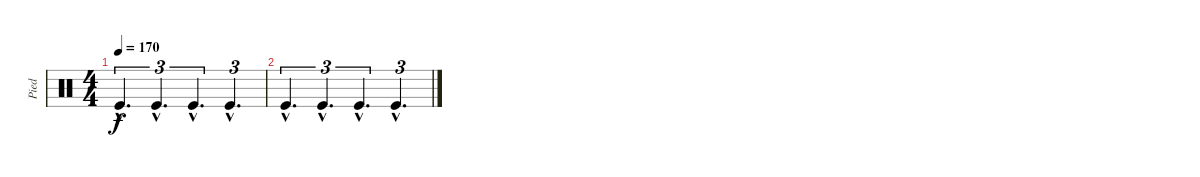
\track ("Pied" "Pied") {instrument percussion}
\staff {score}
\articulation defaults
\ts (4 4)
\tempo 170
\clef neutral
\ks c "Kick (hit)"{hac}.4{d tu (3 2) dy f} "Kick (hit)"{hac}.4{d tu (3 2)} "Kick (hit)"{hac}.4{d tu (3 2)} "Kick (hit)"{hac}.4{d tu (3 2)}
|
"Kick (hit)"{hac}.4{d tu (3 2)} "Kick (hit)"{hac}.4{d tu (3 2)} "Kick (hit)"{hac}.4{d tu (3 2)} "Kick (hit)"{hac}.4{d tu (3 2)}
